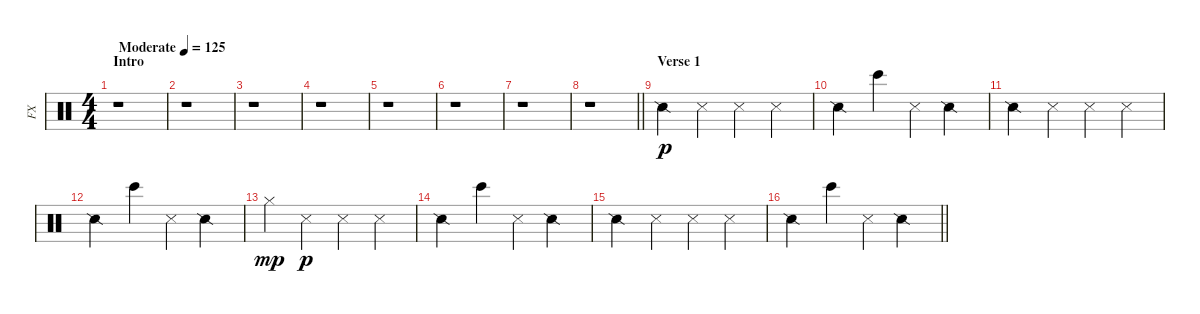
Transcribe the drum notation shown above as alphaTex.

\track ("FX" "FX") {instrument percussion}
\staff {score}
\articulation defaults
\ts (4 4)
\section ("" "Intro")
\tempo (125 "Moderate")
\clef neutral
\ks c
r.1{dy p} |
r.1 |
r.1 |
r.1 |
r.1 |
r.1 |
r.1 |
\barLineRight lightlight
r.1 |
\section ("" "Verse 1")
"Snare (side stick) 2".4 "Metronome (hit)".4 "Metronome (hit)".4 "Metronome (hit)".4 |
"Snare (side stick) 2".4 "Bongo High (hit)".4 "Metronome (hit)".4 "Snare (side stick) 2".4 |
"Snare (side stick) 2".4 "Metronome (hit)".4 "Metronome (hit)".4 "Metronome (hit)".4 |
"Snare (side stick) 2".4 "Bongo High (hit)".4 "Metronome (hit)".4 "Snare (side stick) 2".4 |
"Hi-Hat (closed)".4{dy mp} "Metronome (hit)".4{dy p} "Metronome (hit)".4 "Metronome (hit)".4 |
"Snare (side stick) 2".4 "Bongo High (hit)".4 "Metronome (hit)".4 "Snare (side stick) 2".4 |
"Snare (side stick) 2".4 "Metronome (hit)".4 "Metronome (hit)".4 "Metronome (hit)".4 |
\barLineRight lightlight "Snare (side stick) 2".4 "Bongo High (hit)".4 "Metronome (hit)".4 "Snare (side stick) 2".4
